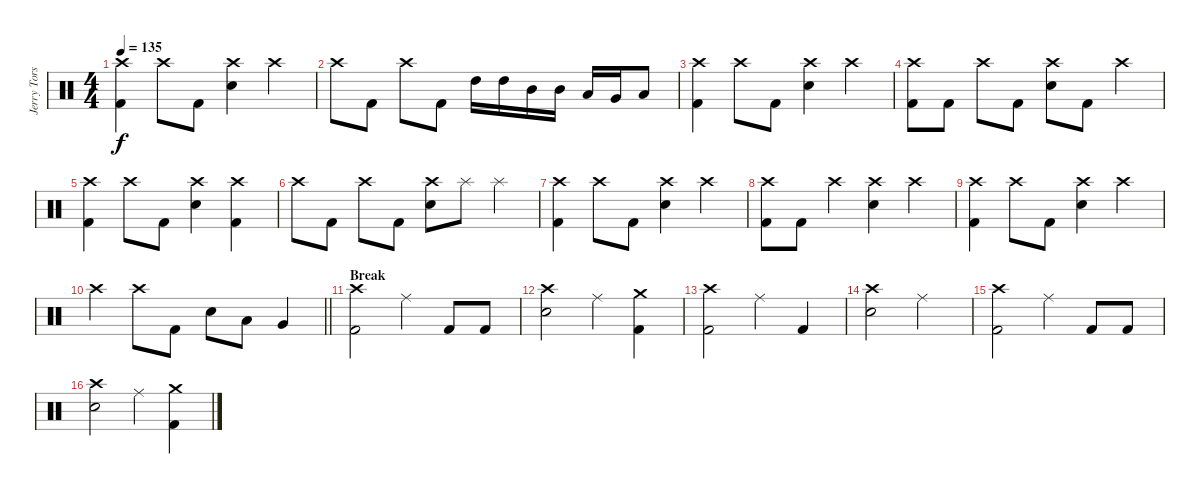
\track ("Jerry Torstensson" "Jerry Tors") {instrument percussion}
\staff {score}
\articulation defaults
\ts (4 4)
\tempo 135
\clef neutral
\ks c
("Crash high (hit)" "Kick (hit) 2").4{dy f} "Crash high (hit)".8 "Kick (hit) 2".8 ("Crash high (hit)" "Snare (hit) 2").4 "Crash high (hit)".4 |
"Crash high (hit)".8 "Kick (hit) 2".8 "Crash high (hit)".8 "Kick (hit) 2".8 "High Tom (hit)".16 "High Tom (hit)".16 "Mid Tom (hit)".16 "Mid Tom (hit)".16 "Low Tom (hit)".16 "Very Low Tom (hit)".16 "Low Floor Tom (hit)".8 |
("Crash high (hit)" "Kick (hit) 2").4 "Crash high (hit)".8 "Kick (hit) 2".8 ("Crash high (hit)" "Snare (hit) 2").4 "Crash high (hit)".4 |
("Crash high (hit)" "Kick (hit) 2").8 "Kick (hit) 2".8 "Crash high (hit)".8 "Kick (hit) 2".8 ("Crash high (hit)" "Snare (hit) 2").8 "Kick (hit) 2".8 "Crash high (hit)".4 |
("Crash high (hit)" "Kick (hit) 2").4 "Crash high (hit)".8 "Kick (hit) 2".8 ("Crash high (hit)" "Snare (hit) 2").4 ("Crash high (hit)" "Kick (hit) 2").4 |
"Crash high (hit)".8 "Kick (hit) 2".8 "Crash high (hit)".8 "Kick (hit) 2".8 ("Crash high (hit)" "Snare (hit) 2").8 "Splash (hit)".8 "Splash (hit)".4 |
("Crash high (hit)" "Kick (hit) 2").4 "Crash high (hit)".8 "Kick (hit) 2".8 ("Crash high (hit)" "Snare (hit) 2").4 "Crash high (hit)".4 |
("Crash high (hit)" "Kick (hit) 2").8 "Kick (hit) 2".8 "Crash high (hit)".4 ("Crash high (hit)" "Snare (hit) 2").4 "Crash high (hit)".4 |
("Crash high (hit)" "Kick (hit) 2").4 "Crash high (hit)".8 "Kick (hit) 2".8 ("Crash high (hit)" "Snare (hit) 2").4 "Crash high (hit)".4 |
\barLineRight lightlight "Crash high (hit)".4 "Crash high (hit)".8 "Kick (hit) 2".8 "Snare (hit) 2".8 "Low Tom (hit)".8 "Very Low Tom (hit)".4
|
\section ("" "Break")
("Crash high (hit)" "Kick (hit) 2").2 "Ride (middle)".4 "Kick (hit) 2".8 "Kick (hit) 2".8 |
("Crash high (hit)" "Snare (hit) 2").2 "Ride (middle)".4 ("Crash medium (hit)" "Kick (hit) 2").4 |
("Crash high (hit)" "Kick (hit) 2").2 "Ride (middle)".4 "Kick (hit) 2".4 |
("Crash high (hit)" "Snare (hit) 2").2 "Ride (middle)".2 |
("Crash high (hit)" "Kick (hit) 2").2 "Ride (middle)".4 "Kick (hit) 2".8 "Kick (hit) 2".8 |
("Crash high (hit)" "Snare (hit) 2").2 "Ride (middle)".4 ("Crash medium (hit)" "Kick (hit) 2").4
